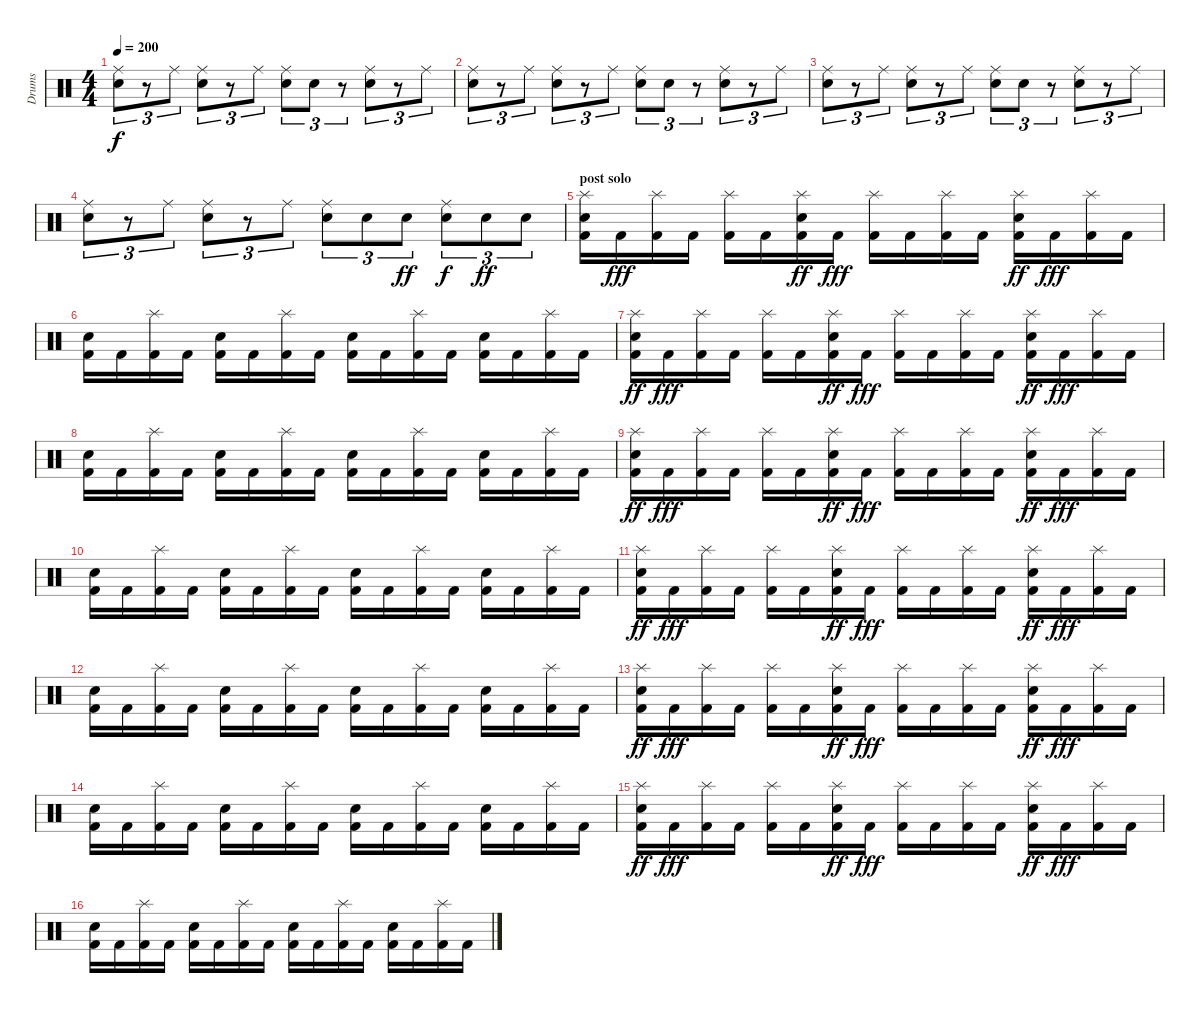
\track ("Drums" "Drums") {instrument percussion}
\staff {score}
\articulation defaults
\ts (4 4)
\tempo 200
\clef neutral
\ks c
("Snare (hit) 2" "Ride (middle)").8{tu (3 2) dy f} r.8{tu (3 2)} "Ride (middle)".8{tu (3 2)} ("Snare (hit) 2" "Ride (middle)").8{tu (3 2)} r.8{tu (3 2)} "Ride (middle)".8{tu (3 2)} ("Snare (hit) 2" "Ride (middle)").8{tu (3 2)} "Snare (hit) 2".8{tu (3 2)} r.8{tu (3 2)} ("Snare (hit) 2" "Ride (middle)").8{tu (3 2)} r.8{tu (3 2)} "Ride (middle)".8{tu (3 2)} |
("Snare (hit) 2" "Ride (middle)").8{tu (3 2)} r.8{tu (3 2)} "Ride (middle)".8{tu (3 2)} ("Snare (hit) 2" "Ride (middle)").8{tu (3 2)} r.8{tu (3 2)} "Ride (middle)".8{tu (3 2)} ("Snare (hit) 2" "Ride (middle)").8{tu (3 2)} "Snare (hit) 2".8{tu (3 2)} r.8{tu (3 2)} ("Snare (hit) 2" "Ride (middle)").8{tu (3 2)} r.8{tu (3 2)} "Ride (middle)".8{tu (3 2)} |
("Snare (hit) 2" "Ride (middle)").8{tu (3 2)} r.8{tu (3 2)} "Ride (middle)".8{tu (3 2)} ("Snare (hit) 2" "Ride (middle)").8{tu (3 2)} r.8{tu (3 2)} "Ride (middle)".8{tu (3 2)} ("Snare (hit) 2" "Ride (middle)").8{tu (3 2)} "Snare (hit) 2".8{tu (3 2)} r.8{tu (3 2)} ("Snare (hit) 2" "Ride (middle)").8{tu (3 2)} r.8{tu (3 2)} "Ride (middle)".8{tu (3 2)} |
("Snare (hit) 2" "Ride (middle)").8{tu (3 2)} r.8{tu (3 2)} "Ride (middle)".8{tu (3 2)} ("Snare (hit) 2" "Ride (middle)").8{tu (3 2)} r.8{tu (3 2)} "Ride (middle)".8{tu (3 2)} ("Snare (hit) 2" "Ride (middle)").8{tu (3 2)} "Snare (hit) 2".8{tu (3 2)} "Electric Snare (hit)".8{tu (3 2) dy ff} ("Snare (hit) 2" "Ride (middle)").8{tu (3 2) dy f} "Electric Snare (hit)".8{tu (3 2) dy ff} "Electric Snare (hit)".8{tu (3 2)} |
\section ("" "post solo")
("Kick (hit) 2" "Electric Snare (hit)" "Splash (hit)").16 "Kick (hit) 2".16{dy fff} ("Splash (hit)" "Kick (hit) 2").16 "Kick (hit) 2".16 ("Splash (hit)" "Kick (hit) 2").16 "Kick (hit) 2".16 ("Kick (hit) 2" "Electric Snare (hit)" "Splash (hit)").16{dy ff} "Kick (hit) 2".16{dy fff} ("Splash (hit)" "Kick (hit) 2").16 "Kick (hit) 2".16 ("Splash (hit)" "Kick (hit) 2").16 "Kick (hit) 2".16 ("Kick (hit) 2" "Electric Snare (hit)" "Splash (hit)").16{dy ff} "Kick (hit) 2".16{dy fff} ("Splash (hit)" "Kick (hit) 2").16 "Kick (hit) 2".16 |
("Electric Snare (hit)" "Kick (hit) 2").16 "Kick (hit) 2".16 ("Splash (hit)" "Kick (hit) 2").16 "Kick (hit) 2".16 ("Electric Snare (hit)" "Kick (hit) 2").16 "Kick (hit) 2".16 ("Splash (hit)" "Kick (hit) 2").16 "Kick (hit) 2".16 ("Electric Snare (hit)" "Kick (hit) 2").16 "Kick (hit) 2".16 ("Splash (hit)" "Kick (hit) 2").16 "Kick (hit) 2".16 ("Electric Snare (hit)" "Kick (hit) 2").16 "Kick (hit) 2".16 ("Splash (hit)" "Kick (hit) 2").16 "Kick (hit) 2".16 |
("Kick (hit) 2" "Electric Snare (hit)" "Splash (hit)").16{dy ff} "Kick (hit) 2".16{dy fff} ("Splash (hit)" "Kick (hit) 2").16 "Kick (hit) 2".16 ("Splash (hit)" "Kick (hit) 2").16 "Kick (hit) 2".16 ("Kick (hit) 2" "Electric Snare (hit)" "Splash (hit)").16{dy ff} "Kick (hit) 2".16{dy fff} ("Splash (hit)" "Kick (hit) 2").16 "Kick (hit) 2".16 ("Splash (hit)" "Kick (hit) 2").16 "Kick (hit) 2".16 ("Kick (hit) 2" "Electric Snare (hit)" "Splash (hit)").16{dy ff} "Kick (hit) 2".16{dy fff} ("Splash (hit)" "Kick (hit) 2").16 "Kick (hit) 2".16 |
("Electric Snare (hit)" "Kick (hit) 2").16 "Kick (hit) 2".16 ("Splash (hit)" "Kick (hit) 2").16 "Kick (hit) 2".16 ("Electric Snare (hit)" "Kick (hit) 2").16 "Kick (hit) 2".16 ("Splash (hit)" "Kick (hit) 2").16 "Kick (hit) 2".16 ("Electric Snare (hit)" "Kick (hit) 2").16 "Kick (hit) 2".16 ("Splash (hit)" "Kick (hit) 2").16 "Kick (hit) 2".16 ("Electric Snare (hit)" "Kick (hit) 2").16 "Kick (hit) 2".16 ("Splash (hit)" "Kick (hit) 2").16 "Kick (hit) 2".16 |
("Kick (hit) 2" "Electric Snare (hit)" "Splash (hit)").16{dy ff} "Kick (hit) 2".16{dy fff} ("Splash (hit)" "Kick (hit) 2").16 "Kick (hit) 2".16 ("Splash (hit)" "Kick (hit) 2").16 "Kick (hit) 2".16 ("Kick (hit) 2" "Electric Snare (hit)" "Splash (hit)").16{dy ff} "Kick (hit) 2".16{dy fff} ("Splash (hit)" "Kick (hit) 2").16 "Kick (hit) 2".16 ("Splash (hit)" "Kick (hit) 2").16 "Kick (hit) 2".16 ("Kick (hit) 2" "Electric Snare (hit)" "Splash (hit)").16{dy ff} "Kick (hit) 2".16{dy fff} ("Splash (hit)" "Kick (hit) 2").16 "Kick (hit) 2".16 |
("Electric Snare (hit)" "Kick (hit) 2").16 "Kick (hit) 2".16 ("Splash (hit)" "Kick (hit) 2").16 "Kick (hit) 2".16 ("Electric Snare (hit)" "Kick (hit) 2").16 "Kick (hit) 2".16 ("Splash (hit)" "Kick (hit) 2").16 "Kick (hit) 2".16 ("Electric Snare (hit)" "Kick (hit) 2").16 "Kick (hit) 2".16 ("Splash (hit)" "Kick (hit) 2").16 "Kick (hit) 2".16 ("Electric Snare (hit)" "Kick (hit) 2").16 "Kick (hit) 2".16 ("Splash (hit)" "Kick (hit) 2").16 "Kick (hit) 2".16 |
("Kick (hit) 2" "Electric Snare (hit)" "Splash (hit)").16{dy ff} "Kick (hit) 2".16{dy fff} ("Splash (hit)" "Kick (hit) 2").16 "Kick (hit) 2".16 ("Splash (hit)" "Kick (hit) 2").16 "Kick (hit) 2".16 ("Kick (hit) 2" "Electric Snare (hit)" "Splash (hit)").16{dy ff} "Kick (hit) 2".16{dy fff} ("Splash (hit)" "Kick (hit) 2").16 "Kick (hit) 2".16 ("Splash (hit)" "Kick (hit) 2").16 "Kick (hit) 2".16 ("Kick (hit) 2" "Electric Snare (hit)" "Splash (hit)").16{dy ff} "Kick (hit) 2".16{dy fff} ("Splash (hit)" "Kick (hit) 2").16 "Kick (hit) 2".16 |
("Electric Snare (hit)" "Kick (hit) 2").16 "Kick (hit) 2".16 ("Splash (hit)" "Kick (hit) 2").16 "Kick (hit) 2".16 ("Electric Snare (hit)" "Kick (hit) 2").16 "Kick (hit) 2".16 ("Splash (hit)" "Kick (hit) 2").16 "Kick (hit) 2".16 ("Electric Snare (hit)" "Kick (hit) 2").16 "Kick (hit) 2".16 ("Splash (hit)" "Kick (hit) 2").16 "Kick (hit) 2".16 ("Electric Snare (hit)" "Kick (hit) 2").16 "Kick (hit) 2".16 ("Splash (hit)" "Kick (hit) 2").16 "Kick (hit) 2".16 |
("Kick (hit) 2" "Electric Snare (hit)" "Splash (hit)").16{dy ff} "Kick (hit) 2".16{dy fff} ("Splash (hit)" "Kick (hit) 2").16 "Kick (hit) 2".16 ("Splash (hit)" "Kick (hit) 2").16 "Kick (hit) 2".16 ("Kick (hit) 2" "Electric Snare (hit)" "Splash (hit)").16{dy ff} "Kick (hit) 2".16{dy fff} ("Splash (hit)" "Kick (hit) 2").16 "Kick (hit) 2".16 ("Splash (hit)" "Kick (hit) 2").16 "Kick (hit) 2".16 ("Kick (hit) 2" "Electric Snare (hit)" "Splash (hit)").16{dy ff} "Kick (hit) 2".16{dy fff} ("Splash (hit)" "Kick (hit) 2").16 "Kick (hit) 2".16 |
("Electric Snare (hit)" "Kick (hit) 2").16 "Kick (hit) 2".16 ("Splash (hit)" "Kick (hit) 2").16 "Kick (hit) 2".16 ("Electric Snare (hit)" "Kick (hit) 2").16 "Kick (hit) 2".16 ("Splash (hit)" "Kick (hit) 2").16 "Kick (hit) 2".16 ("Electric Snare (hit)" "Kick (hit) 2").16 "Kick (hit) 2".16 ("Splash (hit)" "Kick (hit) 2").16 "Kick (hit) 2".16 ("Electric Snare (hit)" "Kick (hit) 2").16 "Kick (hit) 2".16 ("Splash (hit)" "Kick (hit) 2").16 "Kick (hit) 2".16 |
("Kick (hit) 2" "Electric Snare (hit)" "Splash (hit)").16{dy ff} "Kick (hit) 2".16{dy fff} ("Splash (hit)" "Kick (hit) 2").16 "Kick (hit) 2".16 ("Splash (hit)" "Kick (hit) 2").16 "Kick (hit) 2".16 ("Kick (hit) 2" "Electric Snare (hit)" "Splash (hit)").16{dy ff} "Kick (hit) 2".16{dy fff} ("Splash (hit)" "Kick (hit) 2").16 "Kick (hit) 2".16 ("Splash (hit)" "Kick (hit) 2").16 "Kick (hit) 2".16 ("Kick (hit) 2" "Electric Snare (hit)" "Splash (hit)").16{dy ff} "Kick (hit) 2".16{dy fff} ("Splash (hit)" "Kick (hit) 2").16 "Kick (hit) 2".16 |
("Electric Snare (hit)" "Kick (hit) 2").16 "Kick (hit) 2".16 ("Splash (hit)" "Kick (hit) 2").16 "Kick (hit) 2".16 ("Electric Snare (hit)" "Kick (hit) 2").16 "Kick (hit) 2".16 ("Splash (hit)" "Kick (hit) 2").16 "Kick (hit) 2".16 ("Electric Snare (hit)" "Kick (hit) 2").16 "Kick (hit) 2".16 ("Splash (hit)" "Kick (hit) 2").16 "Kick (hit) 2".16 ("Electric Snare (hit)" "Kick (hit) 2").16 "Kick (hit) 2".16 ("Splash (hit)" "Kick (hit) 2").16 "Kick (hit) 2".16
